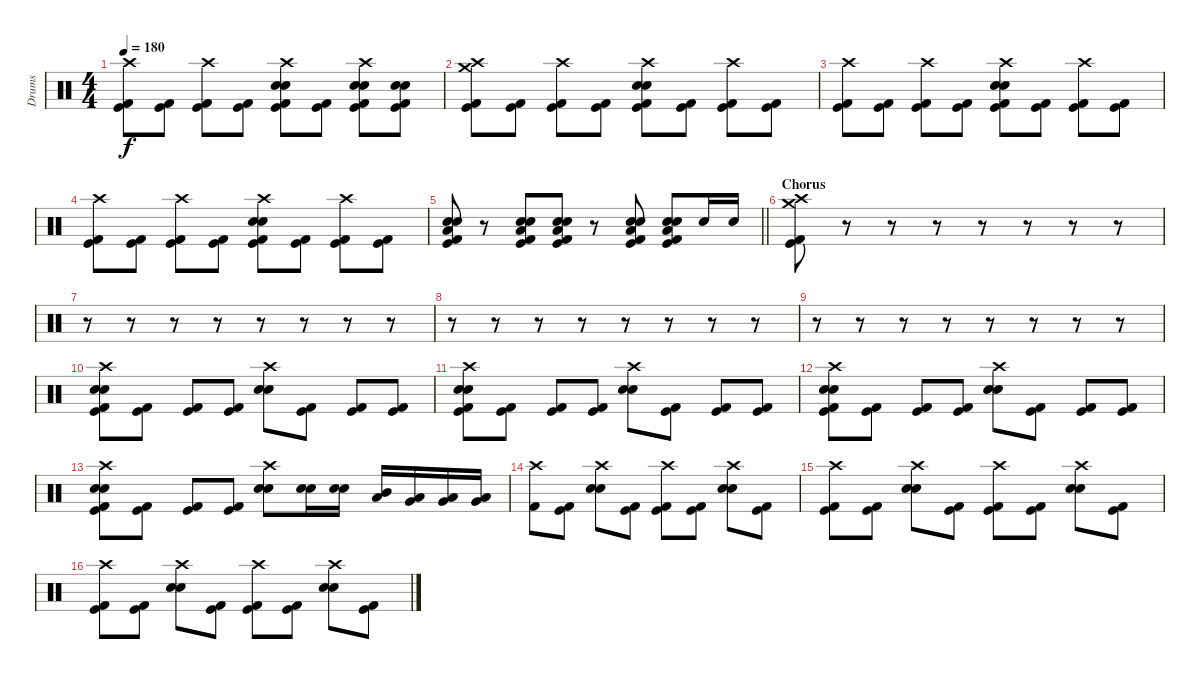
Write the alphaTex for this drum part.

\track ("Drums" "Drums") {instrument percussion}
\staff {score}
\articulation defaults
\ts (4 4)
\tempo 180
\clef neutral
\ks c
("Crash high (hit)" "Kick (hit)" "Kick (hit) 2").8{dy f} ("Kick (hit)" "Kick (hit) 2").8 ("Crash high (hit)" "Kick (hit)" "Kick (hit) 2").8 ("Kick (hit)" "Kick (hit) 2").8 ("Crash high (hit)" "Electric Snare (hit)" "Snare (hit) 2" "Kick (hit)" "Kick (hit) 2").8 ("Kick (hit)" "Kick (hit) 2").8 ("Crash high (hit)" "Snare (hit) 2" "Electric Snare (hit)" "Kick (hit)" "Kick (hit) 2").8 ("Snare (hit) 2" "Electric Snare (hit)" "Kick (hit)" "Kick (hit) 2").8 |
("Crash high (hit)" "Crash medium (hit)" "Kick (hit)" "Kick (hit) 2").8 ("Kick (hit)" "Kick (hit) 2").8 ("Crash high (hit)" "Kick (hit)" "Kick (hit) 2").8 ("Kick (hit)" "Kick (hit) 2").8 ("Crash high (hit)" "Electric Snare (hit)" "Snare (hit) 2" "Kick (hit)" "Kick (hit) 2").8 ("Kick (hit)" "Kick (hit) 2").8 ("Crash high (hit)" "Kick (hit)" "Kick (hit) 2").8 ("Kick (hit)" "Kick (hit) 2").8 |
("Crash high (hit)" "Kick (hit)" "Kick (hit) 2").8 ("Kick (hit)" "Kick (hit) 2").8 ("Crash high (hit)" "Kick (hit)" "Kick (hit) 2").8 ("Kick (hit)" "Kick (hit) 2").8 ("Crash high (hit)" "Electric Snare (hit)" "Snare (hit) 2" "Kick (hit)" "Kick (hit) 2").8 ("Kick (hit)" "Kick (hit) 2").8 ("Crash high (hit)" "Kick (hit)" "Kick (hit) 2").8 ("Kick (hit)" "Kick (hit) 2").8 |
("Crash high (hit)" "Kick (hit)" "Kick (hit) 2").8 ("Kick (hit)" "Kick (hit) 2").8 ("Crash high (hit)" "Kick (hit)" "Kick (hit) 2").8 ("Kick (hit)" "Kick (hit) 2").8 ("Crash high (hit)" "Electric Snare (hit)" "Snare (hit) 2" "Kick (hit)" "Kick (hit) 2").8 ("Kick (hit)" "Kick (hit) 2").8 ("Crash high (hit)" "Kick (hit)" "Kick (hit) 2").8 ("Kick (hit)" "Kick (hit) 2").8 |
\barLineRight lightlight
("Electric Snare (hit)" "Snare (hit) 2" "Low Floor Tom (hit)" "Kick (hit) 2" "Kick (hit)").8 r.8 ("Electric Snare (hit)" "Snare (hit) 2" "Low Floor Tom (hit)" "Kick (hit) 2" "Kick (hit)").8 ("Electric Snare (hit)" "Snare (hit) 2" "Low Floor Tom (hit)" "Kick (hit) 2" "Kick (hit)").8 r.8 ("Electric Snare (hit)" "Snare (hit) 2" "Low Floor Tom (hit)" "Kick (hit) 2" "Kick (hit)").8 ("Electric Snare (hit)" "Snare (hit) 2" "Low Floor Tom (hit)" "Kick (hit) 2" "Kick (hit)").8 "Electric Snare (hit)".16 "Electric Snare (hit)".16 |
\section ("" "Chorus")
("Crash medium (hit)" "Kick (hit)" "Crash high (hit)" "Kick (hit) 2").8 r.8 r.8 r.8 r.8 r.8 r.8 r.8 |
r.8 r.8 r.8 r.8 r.8 r.8 r.8 r.8 |
r.8 r.8 r.8 r.8 r.8 r.8 r.8 r.8 |
r.8 r.8 r.8 r.8 r.8 r.8 r.8 r.8 |
("Crash high (hit)" "Electric Snare (hit)" "Snare (hit) 2" "Kick (hit)" "Kick (hit) 2").8 ("Kick (hit)" "Kick (hit) 2").8 ("Kick (hit)" "Kick (hit) 2").8 ("Kick (hit)" "Kick (hit) 2").8 ("Crash high (hit)" "Electric Snare (hit)" "Snare (hit) 2").8 ("Kick (hit)" "Kick (hit) 2").8 ("Kick (hit)" "Kick (hit) 2").8 ("Kick (hit)" "Kick (hit) 2").8 |
("Crash high (hit)" "Electric Snare (hit)" "Snare (hit) 2" "Kick (hit)" "Kick (hit) 2").8 ("Kick (hit)" "Kick (hit) 2").8 ("Kick (hit)" "Kick (hit) 2").8 ("Kick (hit)" "Kick (hit) 2").8 ("Crash high (hit)" "Electric Snare (hit)" "Snare (hit) 2").8 ("Kick (hit)" "Kick (hit) 2").8 ("Kick (hit)" "Kick (hit) 2").8 ("Kick (hit)" "Kick (hit) 2").8 |
("Crash high (hit)" "Electric Snare (hit)" "Snare (hit) 2" "Kick (hit)" "Kick (hit) 2").8 ("Kick (hit)" "Kick (hit) 2").8 ("Kick (hit)" "Kick (hit) 2").8 ("Kick (hit)" "Kick (hit) 2").8 ("Crash high (hit)" "Electric Snare (hit)" "Snare (hit) 2").8 ("Kick (hit)" "Kick (hit) 2").8 ("Kick (hit)" "Kick (hit) 2").8 ("Kick (hit)" "Kick (hit) 2").8 |
("Crash high (hit)" "Electric Snare (hit)" "Snare (hit) 2" "Kick (hit)" "Kick (hit) 2").8 ("Kick (hit)" "Kick (hit) 2").8 ("Kick (hit)" "Kick (hit) 2").8 ("Kick (hit)" "Kick (hit) 2").8 ("Crash high (hit)" "Electric Snare (hit)" "Snare (hit) 2").8 ("Electric Snare (hit)" "Snare (hit) 2").16 ("Electric Snare (hit)" "Snare (hit) 2").16 ("Mid Tom (hit)" "Low Tom (hit)").16 ("Low Tom (hit)" "Very Low Tom (hit)").16 ("Very Low Tom (hit)" "Low Floor Tom (hit)").16 ("Very Low Tom (hit)" "Low Floor Tom (hit)").16 |
("Crash high (hit)" "Kick (hit) 2").8 ("Kick (hit)" "Kick (hit) 2").8 ("Electric Snare (hit)" "Snare (hit) 2" "Crash high (hit)").8 ("Kick (hit)" "Kick (hit) 2").8 ("Kick (hit)" "Crash high (hit)" "Kick (hit) 2").8 ("Kick (hit)" "Kick (hit) 2").8 ("Electric Snare (hit)" "Snare (hit) 2" "Crash high (hit)").8 ("Kick (hit)" "Kick (hit) 2").8 |
("Kick (hit)" "Crash high (hit)" "Kick (hit) 2").8 ("Kick (hit)" "Kick (hit) 2").8 ("Electric Snare (hit)" "Snare (hit) 2" "Crash high (hit)").8 ("Kick (hit)" "Kick (hit) 2").8 ("Kick (hit)" "Crash high (hit)" "Kick (hit) 2").8 ("Kick (hit)" "Kick (hit) 2").8 ("Electric Snare (hit)" "Snare (hit) 2" "Crash high (hit)").8 ("Kick (hit)" "Kick (hit) 2").8 |
("Kick (hit)" "Crash high (hit)" "Kick (hit) 2").8 ("Kick (hit)" "Kick (hit) 2").8 ("Electric Snare (hit)" "Snare (hit) 2" "Crash high (hit)").8 ("Kick (hit)" "Kick (hit) 2").8 ("Kick (hit)" "Crash high (hit)" "Kick (hit) 2").8 ("Kick (hit)" "Kick (hit) 2").8 ("Electric Snare (hit)" "Snare (hit) 2" "Crash high (hit)").8 ("Kick (hit)" "Kick (hit) 2").8
